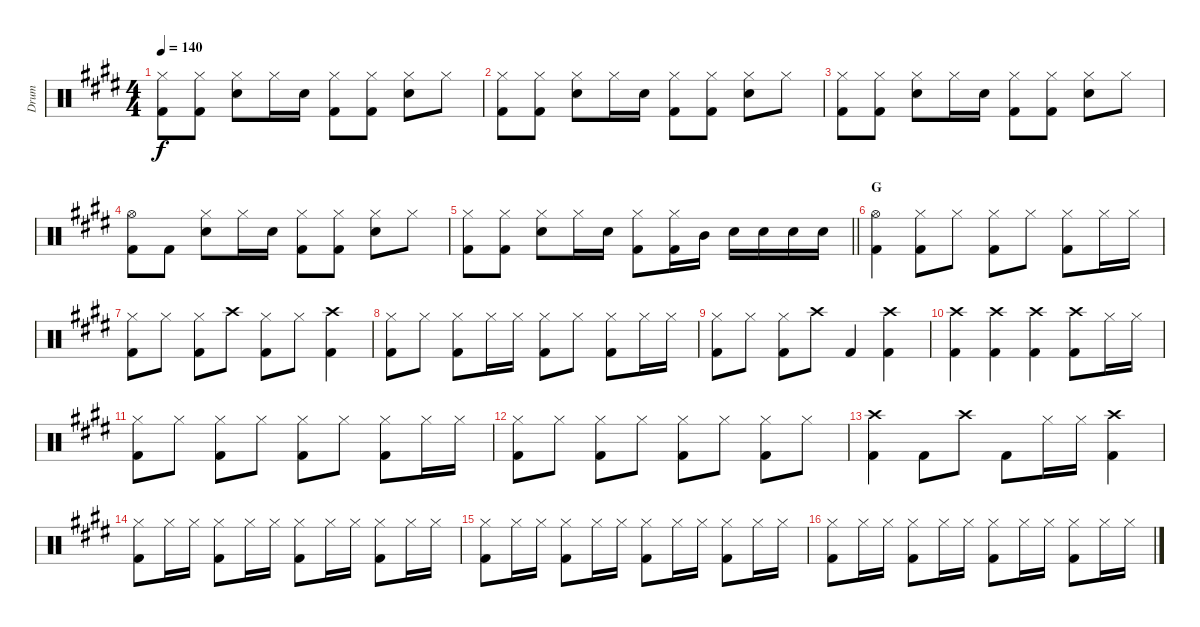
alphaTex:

\track ("Drum" "Drum") {instrument percussion}
\staff {score}
\articulation defaults
\ts (4 4)
\tempo 140
\clef neutral
\ks c#minor
("Hi-Hat (closed)" "Kick (hit) 2").8{dy f} ("Hi-Hat (closed)" "Kick (hit) 2").8 ("Hi-Hat (closed)" "Snare (hit) 2").8 "Hi-Hat (closed)".16 "Snare (hit) 2".16 ("Hi-Hat (closed)" "Kick (hit) 2").8 ("Hi-Hat (closed)" "Kick (hit) 2").8 ("Hi-Hat (closed)" "Snare (hit) 2").8 "Hi-Hat (closed)".8 |
("Hi-Hat (closed)" "Kick (hit) 2").8 ("Hi-Hat (closed)" "Kick (hit) 2").8 ("Hi-Hat (closed)" "Snare (hit) 2").8 "Hi-Hat (closed)".16 "Snare (hit) 2".16 ("Hi-Hat (closed)" "Kick (hit) 2").8 ("Hi-Hat (closed)" "Kick (hit) 2").8 ("Hi-Hat (closed)" "Snare (hit) 2").8 "Hi-Hat (closed)".8 |
("Hi-Hat (closed)" "Kick (hit) 2").8 ("Hi-Hat (closed)" "Kick (hit) 2").8 ("Hi-Hat (closed)" "Snare (hit) 2").8 "Hi-Hat (closed)".16 "Snare (hit) 2".16 ("Hi-Hat (closed)" "Kick (hit) 2").8 ("Hi-Hat (closed)" "Kick (hit) 2").8 ("Hi-Hat (closed)" "Snare (hit) 2").8 "Hi-Hat (closed)".8 |
("Hi-Hat (open)" "Kick (hit) 2").8 "Kick (hit) 2".8 ("Hi-Hat (closed)" "Snare (hit) 2").8 "Hi-Hat (closed)".16 "Snare (hit) 2".16 ("Hi-Hat (closed)" "Kick (hit) 2").8 ("Hi-Hat (closed)" "Kick (hit) 2").8 ("Hi-Hat (closed)" "Snare (hit) 2").8 "Hi-Hat (closed)".8 |
\barLineRight lightlight
("Hi-Hat (closed)" "Kick (hit) 2").8 ("Hi-Hat (closed)" "Kick (hit) 2").8 ("Hi-Hat (closed)" "Snare (hit) 2").8 "Hi-Hat (closed)".16 "Snare (hit) 2".16 ("Hi-Hat (closed)" "Kick (hit) 2").8 ("Hi-Hat (closed)" "Kick (hit) 2").16 "Mid Tom (hit)".16 "Snare (hit) 2".16 "Snare (hit) 2".16 "Snare (hit) 2".16 "Snare (hit) 2".16 |
\section ("" "G")
("Hi-Hat (open)" "Kick (hit) 2").4 ("Hi-Hat (closed)" "Kick (hit) 2").8 "Hi-Hat (closed)".8 ("Hi-Hat (closed)" "Kick (hit) 2").8 "Hi-Hat (closed)".8 ("Hi-Hat (closed)" "Kick (hit) 2").8 "Hi-Hat (closed)".16 "Hi-Hat (closed)".16 |
("Hi-Hat (closed)" "Kick (hit) 2").8 "Hi-Hat (closed)".8 ("Hi-Hat (closed)" "Kick (hit) 2").8 "Crash high (hit)".8 ("Hi-Hat (closed)" "Kick (hit) 2").8 "Hi-Hat (closed)".8 ("Crash high (hit)" "Kick (hit) 2").4 |
("Hi-Hat (closed)" "Kick (hit) 2").8 "Hi-Hat (closed)".8 ("Hi-Hat (closed)" "Kick (hit) 2").8 "Hi-Hat (closed)".16 "Hi-Hat (closed)".16 ("Hi-Hat (closed)" "Kick (hit) 2").8 "Hi-Hat (closed)".8 ("Hi-Hat (closed)" "Kick (hit) 2").8 "Hi-Hat (closed)".16 "Hi-Hat (closed)".16 |
("Hi-Hat (closed)" "Kick (hit) 2").8 "Hi-Hat (closed)".8 ("Hi-Hat (closed)" "Kick (hit) 2").8 "Crash high (hit)".8 "Kick (hit) 2".4 ("Crash high (hit)" "Kick (hit) 2").4 |
("Crash high (hit)" "Kick (hit) 2").4 ("Crash high (hit)" "Kick (hit) 2").4 ("Crash high (hit)" "Kick (hit) 2").4 ("Crash high (hit)" "Kick (hit) 2").8 "Hi-Hat (closed)".16 "Hi-Hat (closed)".16 |
("Hi-Hat (closed)" "Kick (hit) 2").8 "Hi-Hat (closed)".8 ("Hi-Hat (closed)" "Kick (hit) 2").8 "Hi-Hat (closed)".8 ("Hi-Hat (closed)" "Kick (hit) 2").8 "Hi-Hat (closed)".8 ("Hi-Hat (closed)" "Kick (hit) 2").8 "Hi-Hat (closed)".16 "Hi-Hat (closed)".16 |
("Hi-Hat (closed)" "Kick (hit) 2").8 "Hi-Hat (closed)".8 ("Hi-Hat (closed)" "Kick (hit) 2").8 "Hi-Hat (closed)".8 ("Hi-Hat (closed)" "Kick (hit) 2").8 "Hi-Hat (closed)".8 ("Hi-Hat (closed)" "Kick (hit) 2").8 "Hi-Hat (closed)".8 |
("Crash high (hit)" "Kick (hit) 2").4 "Kick (hit) 2".8 "Crash high (hit)".8 "Kick (hit) 2".8 "Hi-Hat (closed)".16 "Hi-Hat (closed)".16 ("Crash high (hit)" "Kick (hit) 2").4 |
("Hi-Hat (closed)" "Kick (hit) 2").8 "Hi-Hat (closed)".16 "Hi-Hat (closed)".16 ("Hi-Hat (closed)" "Kick (hit) 2").8 "Hi-Hat (closed)".16 "Hi-Hat (closed)".16 ("Hi-Hat (closed)" "Kick (hit) 2").8 "Hi-Hat (closed)".16 "Hi-Hat (closed)".16 ("Hi-Hat (closed)" "Kick (hit) 2").8 "Hi-Hat (closed)".16 "Hi-Hat (closed)".16 |
("Hi-Hat (closed)" "Kick (hit) 2").8 "Hi-Hat (closed)".16 "Hi-Hat (closed)".16 ("Hi-Hat (closed)" "Kick (hit) 2").8 "Hi-Hat (closed)".16 "Hi-Hat (closed)".16 ("Hi-Hat (closed)" "Kick (hit) 2").8 "Hi-Hat (closed)".16 "Hi-Hat (closed)".16 ("Hi-Hat (closed)" "Kick (hit) 2").8 "Hi-Hat (closed)".16 "Hi-Hat (closed)".16 |
("Hi-Hat (closed)" "Kick (hit) 2").8 "Hi-Hat (closed)".16 "Hi-Hat (closed)".16 ("Hi-Hat (closed)" "Kick (hit) 2").8 "Hi-Hat (closed)".16 "Hi-Hat (closed)".16 ("Hi-Hat (closed)" "Kick (hit) 2").8 "Hi-Hat (closed)".16 "Hi-Hat (closed)".16 ("Hi-Hat (closed)" "Kick (hit) 2").8 "Hi-Hat (closed)".16 "Hi-Hat (closed)".16
